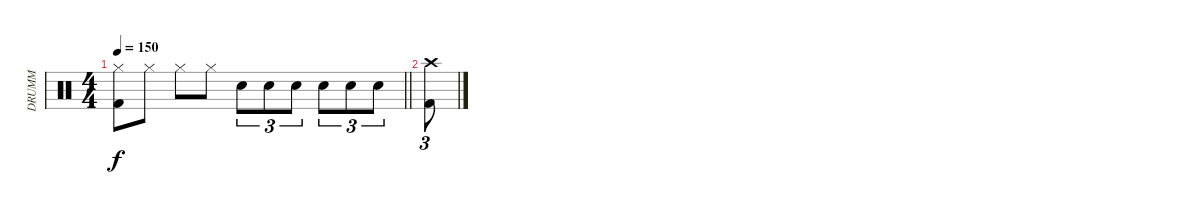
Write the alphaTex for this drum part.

\track ("DRUMM" "DRUMM") {instrument percussion}
\staff {score}
\articulation defaults
\ts (4 4)
\tempo 150
\clef neutral
\barLineRight lightlight
\ks c
("Hi-Hat (closed)" "Kick (hit) 2").8{dy f} "Hi-Hat (closed)".8 "Hi-Hat (closed)".8 "Hi-Hat (closed)".8 "Electric Snare (hit)".8{tu (3 2)} "Electric Snare (hit)".8{tu (3 2)} "Electric Snare (hit)".8{tu (3 2)} "Electric Snare (hit)".8{tu (3 2)} "Electric Snare (hit)".8{tu (3 2)} "Electric Snare (hit)".8{tu (3 2)} |
("Crash high (hit)" "Kick (hit) 2").8{tu (3 2)}
